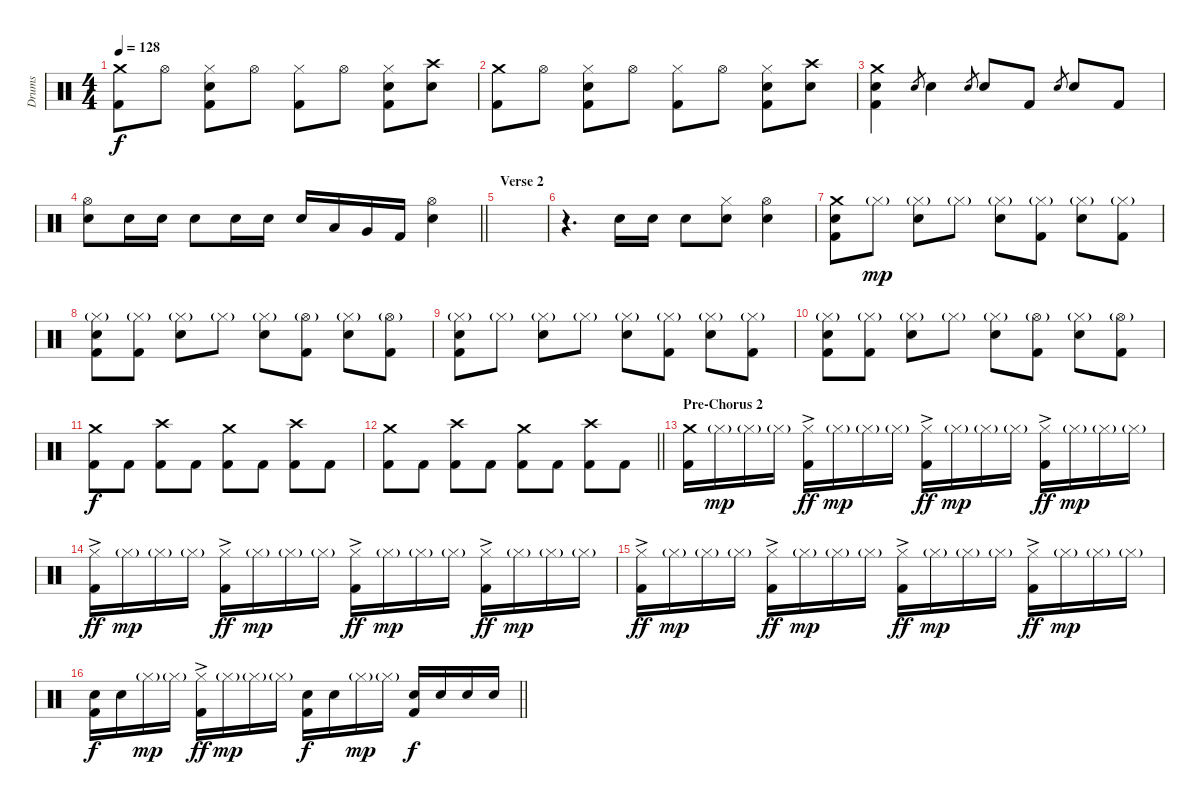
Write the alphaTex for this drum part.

\track ("Drums" "Drums") {instrument percussion}
\staff {score}
\articulation defaults
\ts (4 4)
\tempo 128
\clef neutral
\ks c
("Crash medium (hit)" "Kick (hit) 2").8{dy f} "Hi-Hat (open)".8 ("Hi-Hat (closed)" "Electric Snare (hit)" "Kick (hit) 2").8 "Hi-Hat (open)".8 ("Hi-Hat (closed)" "Kick (hit) 2").8 "Hi-Hat (open)".8 ("Hi-Hat (closed)" "Electric Snare (hit)" "Kick (hit) 2").8 ("Crash high (hit)" "Electric Snare (hit)").8 |
("Crash medium (hit)" "Kick (hit) 2").8 "Hi-Hat (open)".8 ("Hi-Hat (closed)" "Electric Snare (hit)" "Kick (hit) 2").8 "Hi-Hat (open)".8 ("Hi-Hat (closed)" "Kick (hit) 2").8 "Hi-Hat (open)".8 ("Hi-Hat (closed)" "Electric Snare (hit)" "Kick (hit) 2").8 ("Crash high (hit)" "Electric Snare (hit)").8 |
("Crash medium (hit)" "Electric Snare (hit)" "Kick (hit) 2").4 "Electric Snare (hit)".8{gr} "Electric Snare (hit)".4 "Electric Snare (hit)".8{gr} "Electric Snare (hit)".8 "Kick (hit) 2".8 "Electric Snare (hit)".8{gr} "Electric Snare (hit)".8 "Kick (hit) 2".8 |
\barLineRight lightlight
("Hi-Hat (open)" "Electric Snare (hit)").8 "Electric Snare (hit)".16 "Electric Snare (hit)".16 "Electric Snare (hit)".8 "Electric Snare (hit)".16 "Electric Snare (hit)".16 "Electric Snare (hit)".16 "Low Tom (hit)".16 "Very Low Tom (hit)".16 "Kick (hit) 2".16 ("Hi-Hat (open)" "Electric Snare (hit)").4 |
\section ("" "Verse 2")
|
r.4{d} "Electric Snare (hit)".16 "Electric Snare (hit)".16 "Electric Snare (hit)".8 ("Hi-Hat (closed)" "Electric Snare (hit)").8 ("Hi-Hat (open)" "Electric Snare (hit)").4 |
("Crash medium (hit)" "Electric Snare (hit)" "Kick (hit) 2").8 "Hi-Hat (closed)"{g}.8{dy mp} ("Hi-Hat (closed)"{g} "Electric Snare (hit)").8 "Hi-Hat (closed)"{g}.8 ("Hi-Hat (closed)"{g} "Electric Snare (hit)").8 ("Hi-Hat (closed)"{g} "Kick (hit) 2").8 ("Hi-Hat (closed)"{g} "Electric Snare (hit)").8 ("Hi-Hat (closed)"{g} "Kick (hit) 2").8 |
("Hi-Hat (closed)"{g} "Electric Snare (hit)" "Kick (hit) 2").8 ("Hi-Hat (closed)"{g} "Kick (hit) 2").8 ("Hi-Hat (closed)"{g} "Electric Snare (hit)").8 "Hi-Hat (closed)"{g}.8 ("Hi-Hat (closed)"{g} "Electric Snare (hit)").8 ("Hi-Hat (open)"{g} "Kick (hit) 2").8 ("Hi-Hat (closed)"{g} "Electric Snare (hit)").8 ("Hi-Hat (open)"{g} "Kick (hit) 2").8 |
("Hi-Hat (closed)"{g} "Electric Snare (hit)" "Kick (hit) 2").8 "Hi-Hat (closed)"{g}.8 ("Hi-Hat (closed)"{g} "Electric Snare (hit)").8 "Hi-Hat (closed)"{g}.8 ("Hi-Hat (closed)"{g} "Electric Snare (hit)").8 ("Hi-Hat (closed)"{g} "Kick (hit) 2").8 ("Hi-Hat (closed)"{g} "Electric Snare (hit)").8 ("Hi-Hat (closed)"{g} "Kick (hit) 2").8 |
("Hi-Hat (closed)"{g} "Electric Snare (hit)" "Kick (hit) 2").8 ("Hi-Hat (closed)"{g} "Kick (hit) 2").8 ("Hi-Hat (closed)"{g} "Electric Snare (hit)").8 "Hi-Hat (closed)"{g}.8 ("Hi-Hat (closed)"{g} "Electric Snare (hit)").8 ("Hi-Hat (open)"{g} "Kick (hit) 2").8 ("Hi-Hat (closed)"{g} "Electric Snare (hit)").8 ("Hi-Hat (open)"{g} "Kick (hit) 2").8 |
("Crash medium (hit)" "Kick (hit) 2").8{dy f} "Kick (hit) 2".8 ("Crash high (hit)" "Kick (hit) 2").8 "Kick (hit) 2".8 ("Crash medium (hit)" "Kick (hit) 2").8 "Kick (hit) 2".8 ("Crash high (hit)" "Kick (hit) 2").8 "Kick (hit) 2".8 |
\barLineRight lightlight
("Crash medium (hit)" "Kick (hit) 2").8 "Kick (hit) 2".8 ("Crash high (hit)" "Kick (hit) 2").8 "Kick (hit) 2".8 ("Crash medium (hit)" "Kick (hit) 2").8 "Kick (hit) 2".8 ("Crash high (hit)" "Kick (hit) 2").8 "Kick (hit) 2".8 |
\section ("" "Pre-Chorus 2")
("Crash medium (hit)" "Kick (hit) 2").16 "Hi-Hat (closed)"{g}.16{dy mp} "Hi-Hat (closed)"{g}.16 "Hi-Hat (closed)"{g}.16 ("Hi-Hat (closed)"{ac} "Kick (hit) 2").16{dy ff} "Hi-Hat (closed)"{g}.16{dy mp} "Hi-Hat (closed)"{g}.16 "Hi-Hat (closed)"{g}.16 ("Hi-Hat (closed)"{ac} "Kick (hit) 2").16{dy ff} "Hi-Hat (closed)"{g}.16{dy mp} "Hi-Hat (closed)"{g}.16 "Hi-Hat (closed)"{g}.16 ("Hi-Hat (closed)"{ac} "Kick (hit) 2").16{dy ff} "Hi-Hat (closed)"{g}.16{dy mp} "Hi-Hat (closed)"{g}.16 "Hi-Hat (closed)"{g}.16 |
("Hi-Hat (closed)"{ac} "Kick (hit) 2").16{dy ff} "Hi-Hat (closed)"{g}.16{dy mp} "Hi-Hat (closed)"{g}.16 "Hi-Hat (closed)"{g}.16 ("Hi-Hat (closed)"{ac} "Kick (hit) 2").16{dy ff} "Hi-Hat (closed)"{g}.16{dy mp} "Hi-Hat (closed)"{g}.16 "Hi-Hat (closed)"{g}.16 ("Hi-Hat (closed)"{ac} "Kick (hit) 2").16{dy ff} "Hi-Hat (closed)"{g}.16{dy mp} "Hi-Hat (closed)"{g}.16 "Hi-Hat (closed)"{g}.16 ("Hi-Hat (closed)"{ac} "Kick (hit) 2").16{dy ff} "Hi-Hat (closed)"{g}.16{dy mp} "Hi-Hat (closed)"{g}.16 "Hi-Hat (closed)"{g}.16 |
("Hi-Hat (closed)"{ac} "Kick (hit) 2").16{dy ff} "Hi-Hat (closed)"{g}.16{dy mp} "Hi-Hat (closed)"{g}.16 "Hi-Hat (closed)"{g}.16 ("Hi-Hat (closed)"{ac} "Kick (hit) 2").16{dy ff} "Hi-Hat (closed)"{g}.16{dy mp} "Hi-Hat (closed)"{g}.16 "Hi-Hat (closed)"{g}.16 ("Hi-Hat (closed)"{ac} "Kick (hit) 2").16{dy ff} "Hi-Hat (closed)"{g}.16{dy mp} "Hi-Hat (closed)"{g}.16 "Hi-Hat (closed)"{g}.16 ("Hi-Hat (closed)"{ac} "Kick (hit) 2").16{dy ff} "Hi-Hat (closed)"{g}.16{dy mp} "Hi-Hat (closed)"{g}.16 "Hi-Hat (closed)"{g}.16 |
\barLineRight lightlight
("Electric Snare (hit)" "Kick (hit) 2").16{dy f} "Electric Snare (hit)".16 "Hi-Hat (closed)"{g}.16{dy mp} "Hi-Hat (closed)"{g}.16 ("Hi-Hat (closed)"{ac} "Kick (hit) 2").16{dy ff} "Hi-Hat (closed)"{g}.16{dy mp} "Hi-Hat (closed)"{g}.16 "Hi-Hat (closed)"{g}.16 ("Electric Snare (hit)" "Kick (hit) 2").16{dy f} "Electric Snare (hit)".16 "Hi-Hat (closed)"{g}.16{dy mp} "Hi-Hat (closed)"{g}.16 ("Electric Snare (hit)" "Kick (hit) 2").16{dy f} "Electric Snare (hit)".16 "Electric Snare (hit)".16 "Electric Snare (hit)".16
